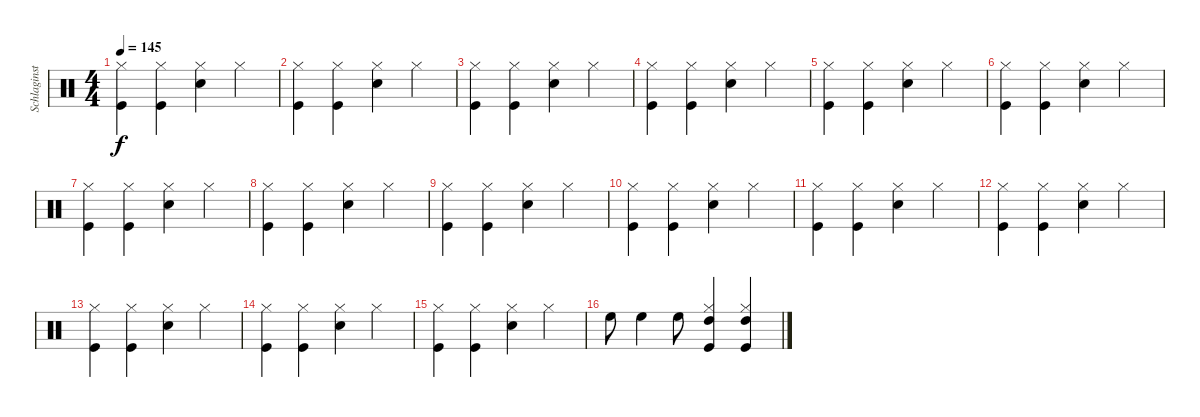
\track ("Schlaginstrumente - Auswahl" "Schlaginst") {instrument percussion}
\staff {score}
\articulation defaults
\ts (4 4)
\tempo 145
\clef neutral
\ks c
("Kick (hit)" "Hi-Hat (closed)").4{dy f} ("Kick (hit)" "Hi-Hat (closed)").4 ("Snare (hit) 2" "Hi-Hat (closed)").4 "Hi-Hat (closed)".4 |
("Kick (hit)" "Hi-Hat (closed)").4 ("Kick (hit)" "Hi-Hat (closed)").4 ("Snare (hit) 2" "Hi-Hat (closed)").4 "Hi-Hat (closed)".4 |
("Kick (hit)" "Hi-Hat (closed)").4 ("Kick (hit)" "Hi-Hat (closed)").4 ("Snare (hit) 2" "Hi-Hat (closed)").4 "Hi-Hat (closed)".4 |
("Kick (hit)" "Hi-Hat (closed)").4 ("Kick (hit)" "Hi-Hat (closed)").4 ("Snare (hit) 2" "Hi-Hat (closed)").4 "Hi-Hat (closed)".4 |
("Kick (hit)" "Hi-Hat (closed)").4 ("Kick (hit)" "Hi-Hat (closed)").4 ("Snare (hit) 2" "Hi-Hat (closed)").4 "Hi-Hat (closed)".4 |
("Kick (hit)" "Hi-Hat (closed)").4 ("Kick (hit)" "Hi-Hat (closed)").4 ("Snare (hit) 2" "Hi-Hat (closed)").4 "Hi-Hat (closed)".4 |
("Kick (hit)" "Hi-Hat (closed)").4 ("Kick (hit)" "Hi-Hat (closed)").4 ("Snare (hit) 2" "Hi-Hat (closed)").4 "Hi-Hat (closed)".4 |
("Kick (hit)" "Hi-Hat (closed)").4 ("Kick (hit)" "Hi-Hat (closed)").4 ("Snare (hit) 2" "Hi-Hat (closed)").4 "Hi-Hat (closed)".4 |
("Kick (hit)" "Hi-Hat (closed)").4 ("Kick (hit)" "Hi-Hat (closed)").4 ("Snare (hit) 2" "Hi-Hat (closed)").4 "Hi-Hat (closed)".4 |
("Kick (hit)" "Hi-Hat (closed)").4 ("Kick (hit)" "Hi-Hat (closed)").4 ("Snare (hit) 2" "Hi-Hat (closed)").4 "Hi-Hat (closed)".4 |
("Kick (hit)" "Hi-Hat (closed)").4 ("Kick (hit)" "Hi-Hat (closed)").4 ("Snare (hit) 2" "Hi-Hat (closed)").4 "Hi-Hat (closed)".4 |
("Kick (hit)" "Hi-Hat (closed)").4 ("Kick (hit)" "Hi-Hat (closed)").4 ("Snare (hit) 2" "Hi-Hat (closed)").4 "Hi-Hat (closed)".4 |
("Kick (hit)" "Hi-Hat (closed)").4 ("Kick (hit)" "Hi-Hat (closed)").4 ("Snare (hit) 2" "Hi-Hat (closed)").4 "Hi-Hat (closed)".4 |
("Kick (hit)" "Hi-Hat (closed)").4 ("Kick (hit)" "Hi-Hat (closed)").4 ("Snare (hit) 2" "Hi-Hat (closed)").4 "Hi-Hat (closed)".4 |
("Kick (hit)" "Hi-Hat (closed)").4 ("Kick (hit)" "Hi-Hat (closed)").4 ("Snare (hit) 2" "Hi-Hat (closed)").4 "Hi-Hat (closed)".4 |
"High Floor Tom (hit)".8 "High Floor Tom (hit)".4 "High Floor Tom (hit)".8 ("High Tom (hit)" "Kick (hit)" "Hi-Hat (closed)").4 ("High Tom (hit)" "Kick (hit)" "Hi-Hat (closed)").4
